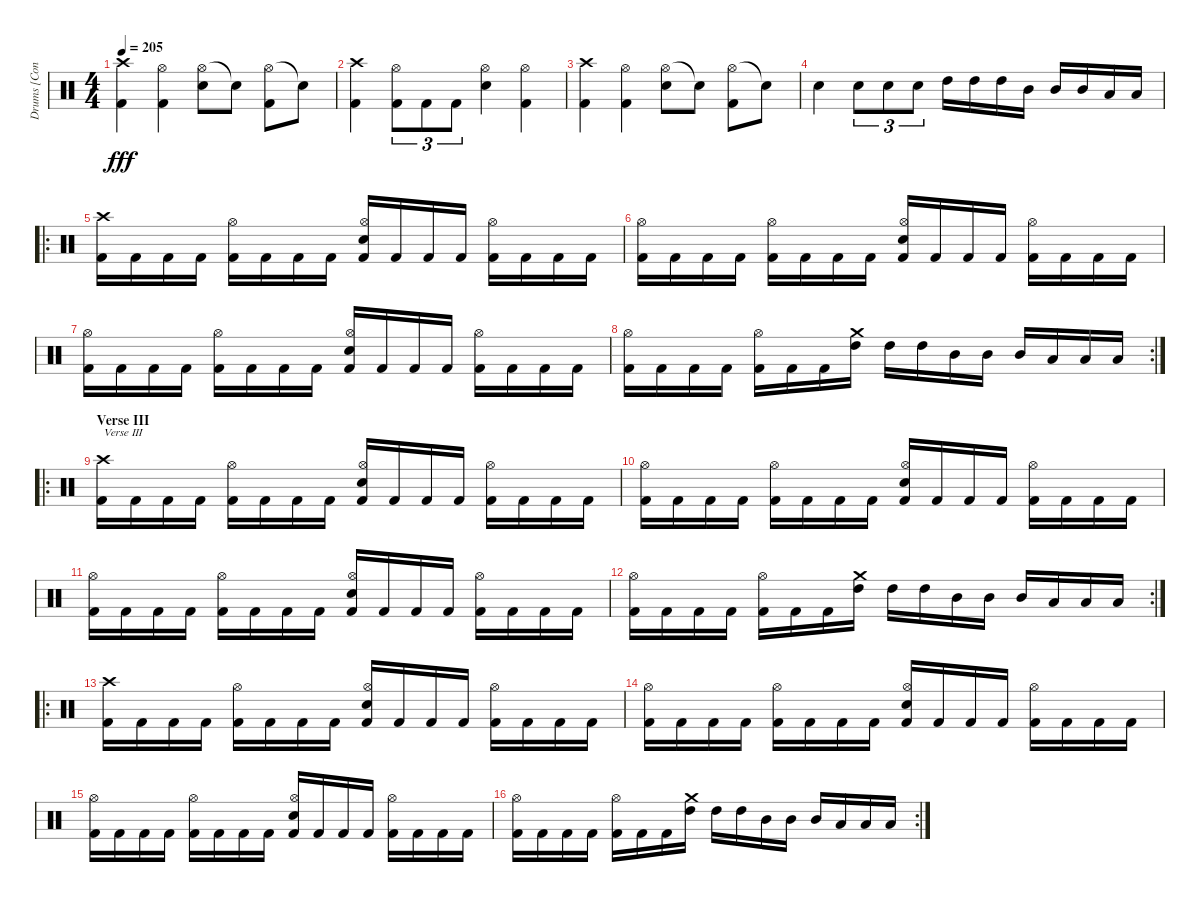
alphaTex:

\track ("Drums [Conny Peterson]" "Drums [Con") {instrument percussion}
\staff {score}
\articulation defaults
\ts (4 4)
\tempo 205
\clef neutral
\ks c
("Crash high (hit)" "Kick (hit) 2").4{dy fff} ("Hi-Hat (open)" "Kick (hit) 2").4 ("Hi-Hat (open)" "Electric Snare (hit)").8 "Snare (hit)"{t}.8 ("Hi-Hat (open)" "Kick (hit) 2").8 "Snare (hit)"{t}.8 |
("Crash high (hit)" "Kick (hit) 2").4 ("Hi-Hat (open)" "Kick (hit) 2").8{tu (3 2)} "Kick (hit) 2".8{tu (3 2)} "Kick (hit) 2".8{tu (3 2)} ("Hi-Hat (open)" "Electric Snare (hit)").4 ("Hi-Hat (open)" "Kick (hit) 2").4 |
("Crash high (hit)" "Kick (hit) 2").4 ("Hi-Hat (open)" "Kick (hit) 2").4 ("Hi-Hat (open)" "Electric Snare (hit)").8 "Snare (hit)"{t}.8 ("Hi-Hat (open)" "Kick (hit) 2").8 "Snare (hit)"{t}.8 |
"Electric Snare (hit)".4 "Electric Snare (hit)".8{tu (3 2)} "Electric Snare (hit)".8{tu (3 2)} "Electric Snare (hit)".8{tu (3 2)} "High Tom (hit)".16 "High Tom (hit)".16 "High Tom (hit)".16 "Mid Tom (hit)".16 "Mid Tom (hit)".16 "Mid Tom (hit)".16 "Low Tom (hit)".16 "Low Tom (hit)".16 |
\ro
("Crash high (hit)" "Kick (hit) 2").16 "Kick (hit) 2".16 "Kick (hit) 2".16 "Kick (hit) 2".16 ("Hi-Hat (open)" "Kick (hit) 2").16 "Kick (hit) 2".16 "Kick (hit) 2".16 "Kick (hit) 2".16 ("Hi-Hat (open)" "Electric Snare (hit)" "Kick (hit) 2").16 "Kick (hit) 2".16 "Kick (hit) 2".16 "Kick (hit) 2".16 ("Hi-Hat (open)" "Kick (hit) 2").16 "Kick (hit) 2".16 "Kick (hit) 2".16 "Kick (hit) 2".16 |
("Hi-Hat (open)" "Kick (hit) 2").16 "Kick (hit) 2".16 "Kick (hit) 2".16 "Kick (hit) 2".16 ("Hi-Hat (open)" "Kick (hit) 2").16 "Kick (hit) 2".16 "Kick (hit) 2".16 "Kick (hit) 2".16 ("Hi-Hat (open)" "Electric Snare (hit)" "Kick (hit) 2").16 "Kick (hit) 2".16 "Kick (hit) 2".16 "Kick (hit) 2".16 ("Hi-Hat (open)" "Kick (hit) 2").16 "Kick (hit) 2".16 "Kick (hit) 2".16 "Kick (hit) 2".16 |
("Hi-Hat (open)" "Kick (hit) 2").16 "Kick (hit) 2".16 "Kick (hit) 2".16 "Kick (hit) 2".16 ("Hi-Hat (open)" "Kick (hit) 2").16 "Kick (hit) 2".16 "Kick (hit) 2".16 "Kick (hit) 2".16 ("Hi-Hat (open)" "Electric Snare (hit)" "Kick (hit) 2").16 "Kick (hit) 2".16 "Kick (hit) 2".16 "Kick (hit) 2".16 ("Hi-Hat (open)" "Kick (hit) 2").16 "Kick (hit) 2".16 "Kick (hit) 2".16 "Kick (hit) 2".16 |
\rc 2
("Hi-Hat (open)" "Kick (hit) 2").16 "Kick (hit) 2".16 "Kick (hit) 2".16 "Kick (hit) 2".16 ("Hi-Hat (open)" "Kick (hit) 2").16 "Kick (hit) 2".16 "Kick (hit) 2".16 ("Crash medium (hit)" "High Tom (hit)").16 "High Tom (hit)".16 "High Tom (hit)".16 "Mid Tom (hit)".16 "Mid Tom (hit)".16 "Mid Tom (hit)".16 "Low Tom (hit)".16 "Low Tom (hit)".16 "Low Tom (hit)".16 |
\ro
\section ("" "Verse III")
("Crash high (hit)" "Kick (hit) 2").16{txt "Verse III"} "Kick (hit) 2".16 "Kick (hit) 2".16 "Kick (hit) 2".16 ("Hi-Hat (open)" "Kick (hit) 2").16 "Kick (hit) 2".16 "Kick (hit) 2".16 "Kick (hit) 2".16 ("Hi-Hat (open)" "Electric Snare (hit)" "Kick (hit) 2").16 "Kick (hit) 2".16 "Kick (hit) 2".16 "Kick (hit) 2".16 ("Hi-Hat (open)" "Kick (hit) 2").16 "Kick (hit) 2".16 "Kick (hit) 2".16 "Kick (hit) 2".16 |
("Hi-Hat (open)" "Kick (hit) 2").16 "Kick (hit) 2".16 "Kick (hit) 2".16 "Kick (hit) 2".16 ("Hi-Hat (open)" "Kick (hit) 2").16 "Kick (hit) 2".16 "Kick (hit) 2".16 "Kick (hit) 2".16 ("Hi-Hat (open)" "Electric Snare (hit)" "Kick (hit) 2").16 "Kick (hit) 2".16 "Kick (hit) 2".16 "Kick (hit) 2".16 ("Hi-Hat (open)" "Kick (hit) 2").16 "Kick (hit) 2".16 "Kick (hit) 2".16 "Kick (hit) 2".16 |
("Hi-Hat (open)" "Kick (hit) 2").16 "Kick (hit) 2".16 "Kick (hit) 2".16 "Kick (hit) 2".16 ("Hi-Hat (open)" "Kick (hit) 2").16 "Kick (hit) 2".16 "Kick (hit) 2".16 "Kick (hit) 2".16 ("Hi-Hat (open)" "Electric Snare (hit)" "Kick (hit) 2").16 "Kick (hit) 2".16 "Kick (hit) 2".16 "Kick (hit) 2".16 ("Hi-Hat (open)" "Kick (hit) 2").16 "Kick (hit) 2".16 "Kick (hit) 2".16 "Kick (hit) 2".16 |
\rc 2
("Hi-Hat (open)" "Kick (hit) 2").16 "Kick (hit) 2".16 "Kick (hit) 2".16 "Kick (hit) 2".16 ("Hi-Hat (open)" "Kick (hit) 2").16 "Kick (hit) 2".16 "Kick (hit) 2".16 ("Crash medium (hit)" "High Tom (hit)").16 "High Tom (hit)".16 "High Tom (hit)".16 "Mid Tom (hit)".16 "Mid Tom (hit)".16 "Mid Tom (hit)".16 "Low Tom (hit)".16 "Low Tom (hit)".16 "Low Tom (hit)".16 |
\ro
("Crash high (hit)" "Kick (hit) 2").16 "Kick (hit) 2".16 "Kick (hit) 2".16 "Kick (hit) 2".16 ("Hi-Hat (open)" "Kick (hit) 2").16 "Kick (hit) 2".16 "Kick (hit) 2".16 "Kick (hit) 2".16 ("Hi-Hat (open)" "Electric Snare (hit)" "Kick (hit) 2").16 "Kick (hit) 2".16 "Kick (hit) 2".16 "Kick (hit) 2".16 ("Hi-Hat (open)" "Kick (hit) 2").16 "Kick (hit) 2".16 "Kick (hit) 2".16 "Kick (hit) 2".16 |
("Hi-Hat (open)" "Kick (hit) 2").16 "Kick (hit) 2".16 "Kick (hit) 2".16 "Kick (hit) 2".16 ("Hi-Hat (open)" "Kick (hit) 2").16 "Kick (hit) 2".16 "Kick (hit) 2".16 "Kick (hit) 2".16 ("Hi-Hat (open)" "Electric Snare (hit)" "Kick (hit) 2").16 "Kick (hit) 2".16 "Kick (hit) 2".16 "Kick (hit) 2".16 ("Hi-Hat (open)" "Kick (hit) 2").16 "Kick (hit) 2".16 "Kick (hit) 2".16 "Kick (hit) 2".16 |
("Hi-Hat (open)" "Kick (hit) 2").16 "Kick (hit) 2".16 "Kick (hit) 2".16 "Kick (hit) 2".16 ("Hi-Hat (open)" "Kick (hit) 2").16 "Kick (hit) 2".16 "Kick (hit) 2".16 "Kick (hit) 2".16 ("Hi-Hat (open)" "Electric Snare (hit)" "Kick (hit) 2").16 "Kick (hit) 2".16 "Kick (hit) 2".16 "Kick (hit) 2".16 ("Hi-Hat (open)" "Kick (hit) 2").16 "Kick (hit) 2".16 "Kick (hit) 2".16 "Kick (hit) 2".16 |
\rc 2
("Hi-Hat (open)" "Kick (hit) 2").16 "Kick (hit) 2".16 "Kick (hit) 2".16 "Kick (hit) 2".16 ("Hi-Hat (open)" "Kick (hit) 2").16 "Kick (hit) 2".16 "Kick (hit) 2".16 ("Crash medium (hit)" "High Tom (hit)").16 "High Tom (hit)".16 "High Tom (hit)".16 "Mid Tom (hit)".16 "Mid Tom (hit)".16 "Mid Tom (hit)".16 "Low Tom (hit)".16 "Low Tom (hit)".16 "Low Tom (hit)".16
